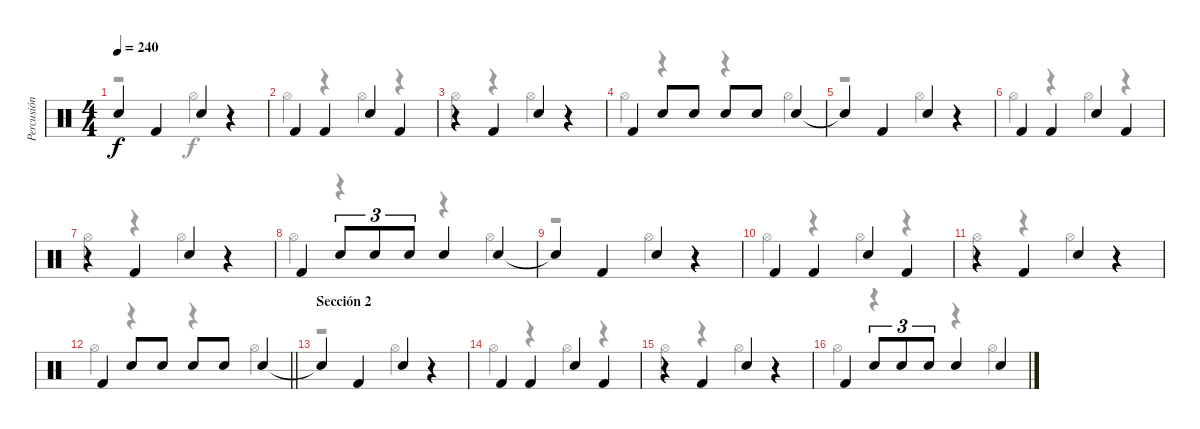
\track ("Percusión" "Percusión") {instrument percussion}
\staff {score}
\articulation defaults
\voice
\ts (4 4)
\tempo 240
\clef neutral
\ks c "Snare (hit)"{t}.4{dy f} "Kick (hit) 2".4 "Electric Snare (hit)".4
r.4 |
"Kick (hit) 2".4 "Kick (hit) 2".4 "Electric Snare (hit)".4 "Kick (hit) 2".4 |
r.4 "Kick (hit) 2".4 "Electric Snare (hit)".4 r.4 |
"Kick (hit) 2".4 "Electric Snare (hit)".8 "Electric Snare (hit)".8 "Electric Snare (hit)".8 "Electric Snare (hit)".8 "Electric Snare (hit)".4 |
"Snare (hit)"{t}.4 "Kick (hit) 2".4 "Electric Snare (hit)".4 r.4 |
"Kick (hit) 2".4 "Kick (hit) 2".4 "Electric Snare (hit)".4 "Kick (hit) 2".4 |
r.4 "Kick (hit) 2".4 "Electric Snare (hit)".4 r.4 |
"Kick (hit) 2".4 "Electric Snare (hit)".8{tu (3 2)} "Electric Snare (hit)".8{tu (3 2)} "Electric Snare (hit)".8{tu (3 2)} "Electric Snare (hit)".4 "Electric Snare (hit)".4 |
"Snare (hit)"{t}.4 "Kick (hit) 2".4 "Electric Snare (hit)".4 r.4 |
"Kick (hit) 2".4 "Kick (hit) 2".4 "Electric Snare (hit)".4 "Kick (hit) 2".4 |
r.4 "Kick (hit) 2".4 "Electric Snare (hit)".4 r.4 |
\barLineRight lightlight "Kick (hit) 2".4 "Electric Snare (hit)".8 "Electric Snare (hit)".8 "Electric Snare (hit)".8 "Electric Snare (hit)".8 "Electric Snare (hit)".4
|
\section ("" "Sección 2")
"Snare (hit)"{t}.4 "Kick (hit) 2".4 "Electric Snare (hit)".4 r.4 |
"Kick (hit) 2".4 "Kick (hit) 2".4 "Electric Snare (hit)".4 "Kick (hit) 2".4 |
r.4 "Kick (hit) 2".4 "Electric Snare (hit)".4 r.4 |
"Kick (hit) 2".4 "Electric Snare (hit)".8{tu (3 2)} "Electric Snare (hit)".8{tu (3 2)} "Electric Snare (hit)".8{tu (3 2)} "Electric Snare (hit)".4 "Electric Snare (hit)".4
\voice
\clef neutral
\ottava regular
\simile none
\ks c
r.2{dy f} "Hi-Hat (open)".4 r.4 |
"Hi-Hat (open)".4 r.4 "Hi-Hat (open)".4 r.4 |
"Hi-Hat (open)".4 r.4 "Hi-Hat (open)".4 r.4 |
"Hi-Hat (open)".4 r.4 r.4 "Hi-Hat (open)".4 |
r.2 "Hi-Hat (open)".4 r.4 |
"Hi-Hat (open)".4 r.4 "Hi-Hat (open)".4 r.4 |
"Hi-Hat (open)".4 r.4 "Hi-Hat (open)".4 r.4 |
"Hi-Hat (open)".4 r.4 r.4 "Hi-Hat (open)".4 |
r.2 "Hi-Hat (open)".4 r.4 |
"Hi-Hat (open)".4 r.4 "Hi-Hat (open)".4 r.4 |
"Hi-Hat (open)".4 r.4 "Hi-Hat (open)".4 r.4 |
\barLineRight lightlight "Hi-Hat (open)".4
r.4 r.4 "Hi-Hat (open)".4 |
r.2 "Hi-Hat (open)".4 r.4 |
"Hi-Hat (open)".4 r.4 "Hi-Hat (open)".4 r.4 |
"Hi-Hat (open)".4 r.4 "Hi-Hat (open)".4 r.4 |
"Hi-Hat (open)".4 r.4 r.4 "Hi-Hat (open)".4
